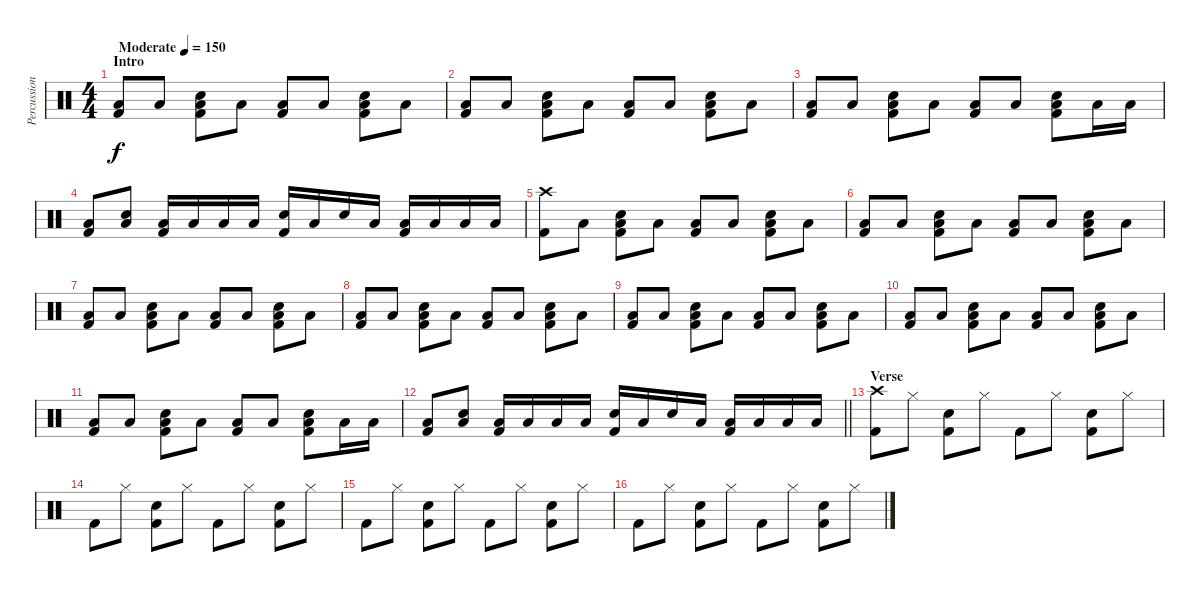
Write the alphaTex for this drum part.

\track ("Percussion" "Percussion") {instrument percussion}
\staff {score}
\articulation defaults
\ts (4 4)
\section ("" "Intro")
\tempo (150 "Moderate")
\clef neutral
\ks c
("Low Floor Tom (hit)" "Kick (hit) 2").8{dy f} "Low Floor Tom (hit)".8 ("Electric Snare (hit)" "Low Floor Tom (hit)" "Kick (hit) 2").8 "Low Floor Tom (hit)".8 ("Low Floor Tom (hit)" "Kick (hit) 2").8 "Low Floor Tom (hit)".8 ("Electric Snare (hit)" "Low Floor Tom (hit)" "Kick (hit) 2").8 "Low Floor Tom (hit)".8 |
("Low Floor Tom (hit)" "Kick (hit) 2").8 "Low Floor Tom (hit)".8 ("Electric Snare (hit)" "Low Floor Tom (hit)" "Kick (hit) 2").8 "Low Floor Tom (hit)".8 ("Low Floor Tom (hit)" "Kick (hit) 2").8 "Low Floor Tom (hit)".8 ("Electric Snare (hit)" "Low Floor Tom (hit)" "Kick (hit) 2").8 "Low Floor Tom (hit)".8 |
("Low Floor Tom (hit)" "Kick (hit) 2").8 "Low Floor Tom (hit)".8 ("Electric Snare (hit)" "Low Floor Tom (hit)" "Kick (hit) 2").8 "Low Floor Tom (hit)".8 ("Low Floor Tom (hit)" "Kick (hit) 2").8 "Low Floor Tom (hit)".8 ("Electric Snare (hit)" "Low Floor Tom (hit)" "Kick (hit) 2").8 "Low Floor Tom (hit)".16 "Low Tom (hit)".16 |
("Low Floor Tom (hit)" "Kick (hit) 2").8 ("Electric Snare (hit)" "Low Floor Tom (hit)").8 ("Low Floor Tom (hit)" "Kick (hit) 2").16 "Low Tom (hit)".16 "Low Floor Tom (hit)".16 "Low Tom (hit)".16 ("Electric Snare (hit)" "Kick (hit) 2").16 "Low Tom (hit)".16 "Electric Snare (hit)".16 "Low Tom (hit)".16 ("Low Tom (hit)" "Kick (hit) 2").16 "Low Tom (hit)".16 "Low Floor Tom (hit)".16 "Low Floor Tom (hit)".16 |
("Crash high (hit)" "Kick (hit) 2").8 "Low Floor Tom (hit)".8 ("Electric Snare (hit)" "Low Floor Tom (hit)" "Kick (hit) 2").8 "Low Floor Tom (hit)".8 ("Low Floor Tom (hit)" "Kick (hit) 2").8 "Low Floor Tom (hit)".8 ("Electric Snare (hit)" "Low Floor Tom (hit)" "Kick (hit) 2").8 "Low Floor Tom (hit)".8 |
("Low Floor Tom (hit)" "Kick (hit) 2").8 "Low Floor Tom (hit)".8 ("Electric Snare (hit)" "Low Floor Tom (hit)" "Kick (hit) 2").8 "Low Floor Tom (hit)".8 ("Low Floor Tom (hit)" "Kick (hit) 2").8 "Low Floor Tom (hit)".8 ("Electric Snare (hit)" "Low Floor Tom (hit)" "Kick (hit) 2").8 "Low Floor Tom (hit)".8 |
("Low Floor Tom (hit)" "Kick (hit) 2").8 "Low Floor Tom (hit)".8 ("Electric Snare (hit)" "Low Floor Tom (hit)" "Kick (hit) 2").8 "Low Floor Tom (hit)".8 ("Low Floor Tom (hit)" "Kick (hit) 2").8 "Low Floor Tom (hit)".8 ("Electric Snare (hit)" "Low Floor Tom (hit)" "Kick (hit) 2").8 "Low Floor Tom (hit)".8 |
("Low Floor Tom (hit)" "Kick (hit) 2").8 "Low Floor Tom (hit)".8 ("Electric Snare (hit)" "Low Floor Tom (hit)" "Kick (hit) 2").8 "Low Floor Tom (hit)".8 ("Low Floor Tom (hit)" "Kick (hit) 2").8 "Low Floor Tom (hit)".8 ("Electric Snare (hit)" "Low Floor Tom (hit)" "Kick (hit) 2").8 "Low Floor Tom (hit)".8 |
("Low Floor Tom (hit)" "Kick (hit) 2").8 "Low Floor Tom (hit)".8 ("Electric Snare (hit)" "Low Floor Tom (hit)" "Kick (hit) 2").8 "Low Floor Tom (hit)".8 ("Low Floor Tom (hit)" "Kick (hit) 2").8 "Low Floor Tom (hit)".8 ("Electric Snare (hit)" "Low Floor Tom (hit)" "Kick (hit) 2").8 "Low Floor Tom (hit)".8 |
("Low Floor Tom (hit)" "Kick (hit) 2").8 "Low Floor Tom (hit)".8 ("Electric Snare (hit)" "Low Floor Tom (hit)" "Kick (hit) 2").8 "Low Floor Tom (hit)".8 ("Low Floor Tom (hit)" "Kick (hit) 2").8 "Low Floor Tom (hit)".8 ("Electric Snare (hit)" "Low Floor Tom (hit)" "Kick (hit) 2").8 "Low Floor Tom (hit)".8 |
("Low Floor Tom (hit)" "Kick (hit) 2").8 "Low Floor Tom (hit)".8 ("Electric Snare (hit)" "Low Floor Tom (hit)" "Kick (hit) 2").8 "Low Floor Tom (hit)".8 ("Low Floor Tom (hit)" "Kick (hit) 2").8 "Low Floor Tom (hit)".8 ("Electric Snare (hit)" "Low Floor Tom (hit)" "Kick (hit) 2").8 "Low Floor Tom (hit)".16 "Low Tom (hit)".16 |
\barLineRight lightlight
("Low Floor Tom (hit)" "Kick (hit) 2").8 ("Electric Snare (hit)" "Low Floor Tom (hit)").8 ("Low Floor Tom (hit)" "Kick (hit) 2").16 "Low Tom (hit)".16 "Low Floor Tom (hit)".16 "Low Tom (hit)".16 ("Electric Snare (hit)" "Kick (hit) 2").16 "Low Tom (hit)".16 "Electric Snare (hit)".16 "Low Tom (hit)".16 ("Low Tom (hit)" "Kick (hit) 2").16 "Low Tom (hit)".16 "Low Floor Tom (hit)".16 "Low Floor Tom (hit)".16 |
\section ("" "Verse")
("Crash high (hit)" "Kick (hit) 2").8 "Hi-Hat (closed)".8 ("Electric Snare (hit)" "Kick (hit) 2").8 "Hi-Hat (closed)".8 "Kick (hit) 2".8 "Hi-Hat (closed)".8 ("Electric Snare (hit)" "Kick (hit) 2").8 "Hi-Hat (closed)".8 |
"Kick (hit) 2".8 "Hi-Hat (closed)".8 ("Electric Snare (hit)" "Kick (hit) 2").8 "Hi-Hat (closed)".8 "Kick (hit) 2".8 "Hi-Hat (closed)".8 ("Electric Snare (hit)" "Kick (hit) 2").8 "Hi-Hat (closed)".8 |
"Kick (hit) 2".8 "Hi-Hat (closed)".8 ("Electric Snare (hit)" "Kick (hit) 2").8 "Hi-Hat (closed)".8 "Kick (hit) 2".8 "Hi-Hat (closed)".8 ("Electric Snare (hit)" "Kick (hit) 2").8 "Hi-Hat (closed)".8 |
"Kick (hit) 2".8 "Hi-Hat (closed)".8 ("Electric Snare (hit)" "Kick (hit) 2").8 "Hi-Hat (closed)".8 "Kick (hit) 2".8 "Hi-Hat (closed)".8 ("Electric Snare (hit)" "Kick (hit) 2").8 "Hi-Hat (closed)".8
